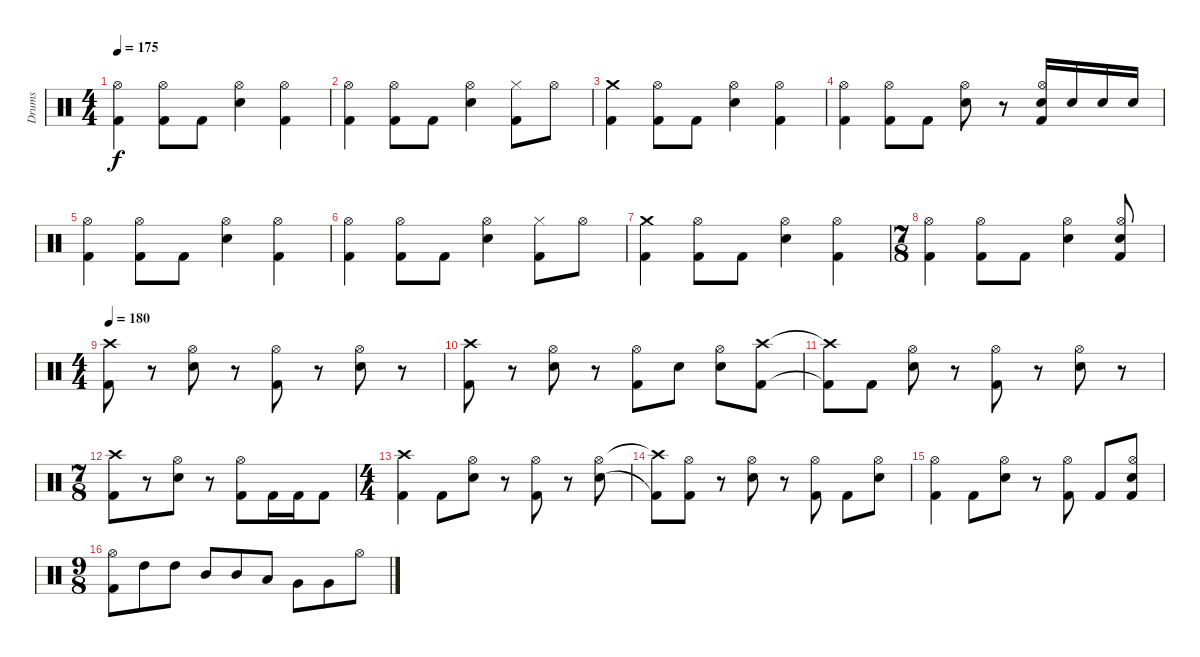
\track ("Drums" "Drums") {instrument percussion}
\staff {score}
\articulation defaults
\ts (4 4)
\tempo 175
\clef neutral
\ks c
("Kick (hit) 2" "Hi-Hat (open)").4{dy f} ("Kick (hit) 2" "Hi-Hat (open)").8 "Kick (hit) 2".8 ("Electric Snare (hit)" "Hi-Hat (open)").4 ("Kick (hit) 2" "Hi-Hat (open)").4 |
("Kick (hit) 2" "Hi-Hat (open)").4 ("Kick (hit) 2" "Hi-Hat (open)").8 "Kick (hit) 2".8 ("Electric Snare (hit)" "Hi-Hat (open)").4 ("Kick (hit) 2" "Hi-Hat (closed)").8 "Hi-Hat (open)".8 |
("Kick (hit) 2" "Crash medium (hit)").4 ("Kick (hit) 2" "Hi-Hat (open)").8 "Kick (hit) 2".8 ("Electric Snare (hit)" "Hi-Hat (open)").4 ("Kick (hit) 2" "Hi-Hat (open)").4 |
("Kick (hit) 2" "Hi-Hat (open)").4 ("Kick (hit) 2" "Hi-Hat (open)").8 "Kick (hit) 2".8 ("Electric Snare (hit)" "Hi-Hat (open)").8 r.8 ("Kick (hit) 2" "Electric Snare (hit)" "Hi-Hat (open)").16 "Electric Snare (hit)".16 "Electric Snare (hit)".16 "Electric Snare (hit)".16 |
("Kick (hit) 2" "Hi-Hat (open)").4 ("Kick (hit) 2" "Hi-Hat (open)").8 "Kick (hit) 2".8 ("Electric Snare (hit)" "Hi-Hat (open)").4 ("Kick (hit) 2" "Hi-Hat (open)").4 |
("Kick (hit) 2" "Hi-Hat (open)").4 ("Kick (hit) 2" "Hi-Hat (open)").8 "Kick (hit) 2".8 ("Electric Snare (hit)" "Hi-Hat (open)").4 ("Kick (hit) 2" "Hi-Hat (closed)").8 "Hi-Hat (open)".8 |
("Kick (hit) 2" "Crash medium (hit)").4 ("Kick (hit) 2" "Hi-Hat (open)").8 "Kick (hit) 2".8 ("Electric Snare (hit)" "Hi-Hat (open)").4 ("Kick (hit) 2" "Hi-Hat (open)").4 |
\ts (7 8)
("Kick (hit) 2" "Hi-Hat (open)").4 ("Kick (hit) 2" "Hi-Hat (open)").8 "Kick (hit) 2".8 ("Electric Snare (hit)" "Hi-Hat (open)").4 ("Kick (hit) 2" "Electric Snare (hit)" "Hi-Hat (open)").8 |
\ts (4 4)
\tempo 180
("Kick (hit) 2" "Crash high (hit)").8 r.8 ("Electric Snare (hit)" "Hi-Hat (open)").8 r.8 ("Kick (hit) 2" "Hi-Hat (open)").8 r.8 ("Electric Snare (hit)" "Hi-Hat (open)").8 r.8 |
("Kick (hit) 2" "Crash high (hit)").8 r.8 ("Electric Snare (hit)" "Hi-Hat (open)").8 r.8 ("Kick (hit) 2" "Hi-Hat (open)").8 "Electric Snare (hit)".8 ("Electric Snare (hit)" "Hi-Hat (open)").8 ("Kick (hit) 2" "Crash high (hit)").8 |
("Kick (hit) 2"{t} "Crash high (hit)"{t}).8 "Kick (hit) 2".8 ("Electric Snare (hit)" "Hi-Hat (open)").8 r.8 ("Kick (hit) 2" "Hi-Hat (open)").8 r.8 ("Electric Snare (hit)" "Hi-Hat (open)").8 r.8 |
\ts (7 8)
("Kick (hit) 2" "Crash high (hit)").8 r.8 ("Electric Snare (hit)" "Hi-Hat (open)").8 r.8 ("Kick (hit) 2" "Hi-Hat (open)").8 "Kick (hit) 2".16 "Kick (hit) 2".16 "Kick (hit) 2".8 |
\ts (4 4)
("Kick (hit) 2" "Crash high (hit)").4 "Kick (hit) 2".8 ("Electric Snare (hit)" "Hi-Hat (open)").8 r.8 ("Kick (hit) 2" "Hi-Hat (open)").8 r.8 ("Electric Snare (hit)" "Hi-Hat (open)").8 |
("Kick (hit) 2"{t} "Crash high (hit)"{t}).8 ("Kick (hit) 2" "Hi-Hat (open)").8 r.8 ("Electric Snare (hit)" "Hi-Hat (open)").8 r.8 ("Kick (hit) 2" "Hi-Hat (open)").8 "Kick (hit) 2".8 ("Electric Snare (hit)" "Hi-Hat (open)").8 |
("Kick (hit) 2" "Hi-Hat (open)").4 "Kick (hit) 2".8 ("Electric Snare (hit)" "Hi-Hat (open)").8 r.8 ("Kick (hit) 2" "Hi-Hat (open)").8 "Kick (hit) 2".8 ("Kick (hit) 2" "Electric Snare (hit)" "Hi-Hat (open)").8 |
\ts (9 8)
("Kick (hit) 2" "Hi-Hat (open)").8 "High Tom (hit)".8 "High Tom (hit)".8 "Mid Tom (hit)".8 "Mid Tom (hit)".8 "Low Tom (hit)".8 "Very Low Tom (hit)".8 "Very Low Tom (hit)".8 "Hi-Hat (open)".8
